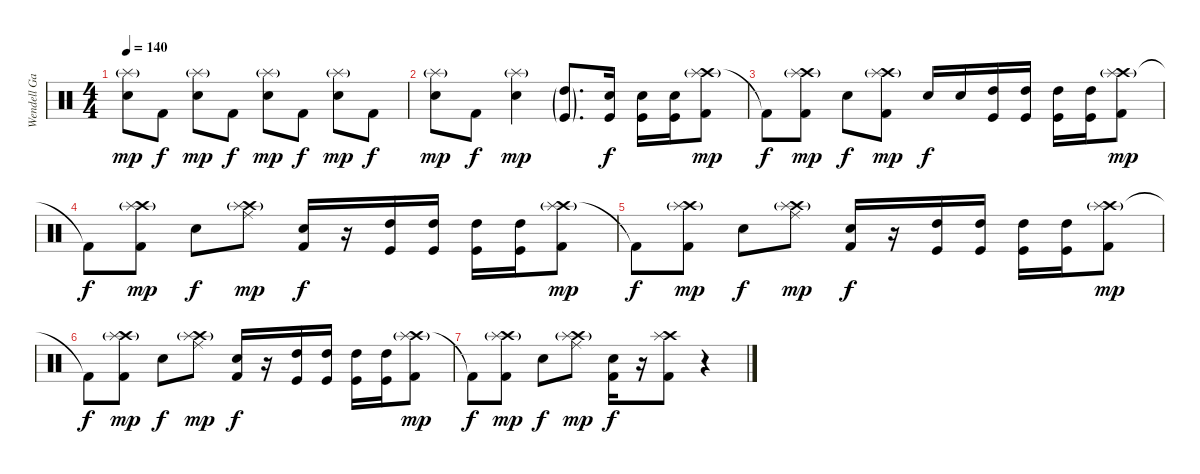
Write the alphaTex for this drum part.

\track ("Wendell Garcia(Drums)" "Wendell Ga") {instrument percussion}
\staff {score}
\articulation defaults
\ts (4 4)
\tempo 140
\clef neutral
\ks c
("Splash (hit)"{g} "Electric Snare (hit)").8{dy mp} "Kick (hit) 2".8{dy f} ("Splash (hit)"{g} "Electric Snare (hit)").8{dy mp} "Kick (hit) 2".8{dy f} ("Splash (hit)"{g} "Electric Snare (hit)").8{dy mp} "Kick (hit) 2".8{dy f} ("Splash (hit)"{g} "Electric Snare (hit)").8{dy mp} "Kick (hit) 2".8{dy f} |
("Splash (hit)"{g} "Electric Snare (hit)").8{dy mp} "Kick (hit) 2".8{dy f} ("Splash (hit)"{g} "Electric Snare (hit)").4{dy mp} ("High Tom (hit)"{g} "Kick (hit)"{g}).8{d} ("Electric Snare (hit)" "Kick (hit)").16{dy f} ("Electric Snare (hit)" "Kick (hit)").16 ("Electric Snare (hit)" "Kick (hit)").16 ("Crash high (hit)" "Splash (hit)"{g} "Kick (hit) 2").8{dy mp} |
"Kick (hit) 2"{t}.8{dy f} ("Crash high (hit)" "Splash (hit)"{g} "Kick (hit) 2").8{dy mp} "Electric Snare (hit)".8{dy f} ("Crash high (hit)" "Splash (hit)"{g} "Kick (hit) 2").8{dy mp} "Electric Snare (hit)".16{dy f} "Electric Snare (hit)".16 ("High Tom (hit)" "Kick (hit)").16 ("High Tom (hit)" "Kick (hit)").16 ("High Tom (hit)" "Kick (hit)").16 ("High Tom (hit)" "Kick (hit)").16 ("Crash high (hit)" "Splash (hit)"{g} "Kick (hit) 2").8{dy mp} |
"Kick (hit) 2"{t}.8{dy f} ("Crash high (hit)" "Splash (hit)"{g} "Kick (hit) 2").8{dy mp} "Electric Snare (hit)".8{dy f} ("Crash high (hit)"{g} "Splash (hit)"{g} "Ride (middle)").8{dy mp} ("Electric Snare (hit)" "Kick (hit) 2").16{dy f} r.16 ("High Tom (hit)" "Kick (hit)").16 ("High Tom (hit)" "Kick (hit)").16 ("High Tom (hit)" "Kick (hit)").16 ("High Tom (hit)" "Kick (hit)").16 ("Crash high (hit)" "Splash (hit)"{g} "Kick (hit) 2").8{dy mp} |
"Kick (hit) 2"{t}.8{dy f} ("Crash high (hit)" "Splash (hit)"{g} "Kick (hit) 2").8{dy mp} "Electric Snare (hit)".8{dy f} ("Crash high (hit)"{g} "Splash (hit)"{g} "Ride (middle)").8{dy mp} ("Electric Snare (hit)" "Kick (hit) 2").16{dy f} r.16 ("High Tom (hit)" "Kick (hit)").16 ("High Tom (hit)" "Kick (hit)").16 ("High Tom (hit)" "Kick (hit)").16 ("High Tom (hit)" "Kick (hit)").16 ("Crash high (hit)" "Splash (hit)"{g} "Kick (hit) 2").8{dy mp} |
"Kick (hit) 2"{t}.8{dy f} ("Crash high (hit)" "Splash (hit)"{g} "Kick (hit) 2").8{dy mp} "Electric Snare (hit)".8{dy f} ("Crash high (hit)"{g} "Splash (hit)"{g} "Ride (middle)").8{dy mp} ("Electric Snare (hit)" "Kick (hit) 2").16{dy f} r.16 ("High Tom (hit)" "Kick (hit)").16 ("High Tom (hit)" "Kick (hit)").16 ("High Tom (hit)" "Kick (hit)").16 ("High Tom (hit)" "Kick (hit)").16 ("Crash high (hit)" "Splash (hit)"{g} "Kick (hit) 2").8{dy mp} |
"Kick (hit) 2"{t}.8{dy f} ("Crash high (hit)" "Splash (hit)"{g} "Kick (hit) 2").8{dy mp} "Electric Snare (hit)".8{dy f} ("Crash high (hit)"{g} "Splash (hit)"{g} "Ride (middle)").8{dy mp} ("Electric Snare (hit)" "Kick (hit) 2").16{dy f} r.16 ("Crash high (hit)" "Splash (hit)" "Kick (hit) 2").8 r.4
